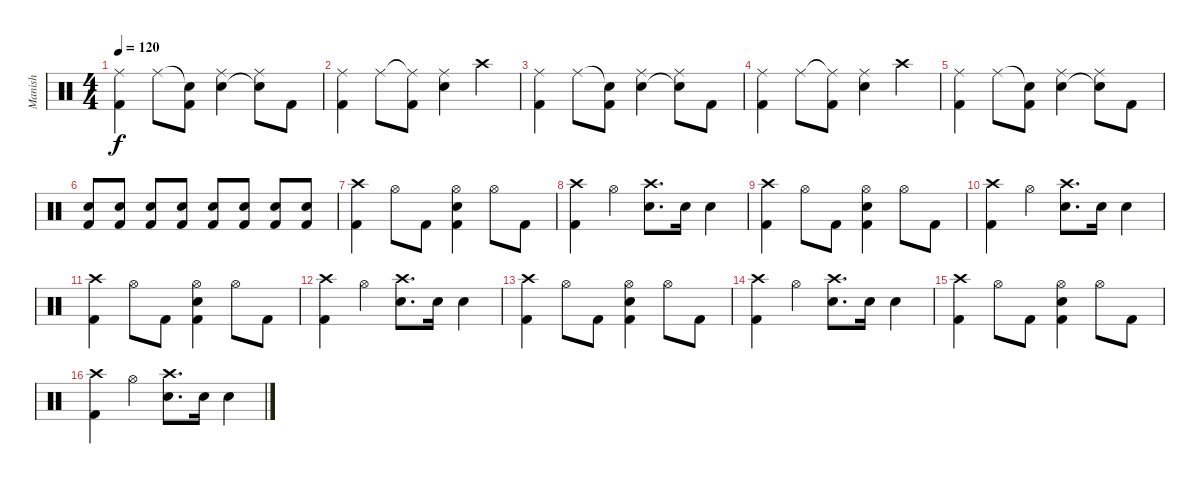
\track ("Manish" "Manish") {instrument percussion}
\staff {score}
\articulation defaults
\ts (4 4)
\tempo 120
\clef neutral
\ks c
("Ride (middle)" "Kick (hit) 2").4{dy f} "Ride (middle)".8 ("Snare (hit)"{t} "Kick (hit) 2").8 ("Ride (middle)" "Snare (hit) 2").4 ("Ride (middle)" "Snare (hit)"{t}).8 "Kick (hit) 2".8 |
("Ride (middle)" "Kick (hit) 2").4 "Ride (middle)".8 ("Ride (middle)"{t} "Kick (hit) 2").8 ("Ride (middle)" "Snare (hit) 2").4 "Crash high (hit)".4 |
("Ride (middle)" "Kick (hit) 2").4 "Ride (middle)".8 ("Snare (hit)"{t} "Kick (hit) 2").8 ("Ride (middle)" "Snare (hit) 2").4 ("Ride (middle)" "Snare (hit)"{t}).8 "Kick (hit) 2".8 |
("Ride (middle)" "Kick (hit) 2").4 "Ride (middle)".8 ("Ride (middle)"{t} "Kick (hit) 2").8 ("Ride (middle)" "Snare (hit) 2").4 "Crash high (hit)".4 |
("Ride (middle)" "Kick (hit) 2").4 "Ride (middle)".8 ("Snare (hit)"{t} "Kick (hit) 2").8 ("Ride (middle)" "Snare (hit) 2").4 ("Ride (middle)" "Snare (hit)"{t}).8 "Kick (hit) 2".8 |
("Snare (hit) 2" "Kick (hit) 2").8 ("Snare (hit) 2" "Kick (hit) 2").8 ("Snare (hit) 2" "Kick (hit) 2").8 ("Snare (hit) 2" "Kick (hit) 2").8 ("Snare (hit) 2" "Kick (hit) 2").8 ("Snare (hit) 2" "Kick (hit) 2").8 ("Snare (hit) 2" "Kick (hit) 2").8 ("Snare (hit) 2" "Kick (hit) 2").8 |
("Crash high (hit)" "Kick (hit) 2").4 "Hi-Hat (open)".8 "Kick (hit) 2".8 ("Hi-Hat (open)" "Kick (hit) 2" "Snare (hit) 2").4 "Hi-Hat (open)".8 "Kick (hit) 2".8 |
("Crash high (hit)" "Kick (hit) 2").4 "Hi-Hat (open)".4 ("Crash high (hit)" "Snare (hit) 2").8{d} "Snare (hit) 2".16 "Snare (hit) 2".4 |
("Crash high (hit)" "Kick (hit) 2").4 "Hi-Hat (open)".8 "Kick (hit) 2".8 ("Hi-Hat (open)" "Kick (hit) 2" "Snare (hit) 2").4 "Hi-Hat (open)".8 "Kick (hit) 2".8 |
("Crash high (hit)" "Kick (hit) 2").4 "Hi-Hat (open)".4 ("Crash high (hit)" "Snare (hit) 2").8{d} "Snare (hit) 2".16 "Snare (hit) 2".4 |
("Crash high (hit)" "Kick (hit) 2").4 "Hi-Hat (open)".8 "Kick (hit) 2".8 ("Hi-Hat (open)" "Kick (hit) 2" "Snare (hit) 2").4 "Hi-Hat (open)".8 "Kick (hit) 2".8 |
("Crash high (hit)" "Kick (hit) 2").4 "Hi-Hat (open)".4 ("Crash high (hit)" "Snare (hit) 2").8{d} "Snare (hit) 2".16 "Snare (hit) 2".4 |
("Crash high (hit)" "Kick (hit) 2").4 "Hi-Hat (open)".8 "Kick (hit) 2".8 ("Hi-Hat (open)" "Kick (hit) 2" "Snare (hit) 2").4 "Hi-Hat (open)".8 "Kick (hit) 2".8 |
("Crash high (hit)" "Kick (hit) 2").4 "Hi-Hat (open)".4 ("Crash high (hit)" "Snare (hit) 2").8{d} "Snare (hit) 2".16 "Snare (hit) 2".4 |
("Crash high (hit)" "Kick (hit) 2").4 "Hi-Hat (open)".8 "Kick (hit) 2".8 ("Hi-Hat (open)" "Kick (hit) 2" "Snare (hit) 2").4 "Hi-Hat (open)".8 "Kick (hit) 2".8 |
("Crash high (hit)" "Kick (hit) 2").4 "Hi-Hat (open)".4 ("Crash high (hit)" "Snare (hit) 2").8{d} "Snare (hit) 2".16 "Snare (hit) 2".4
